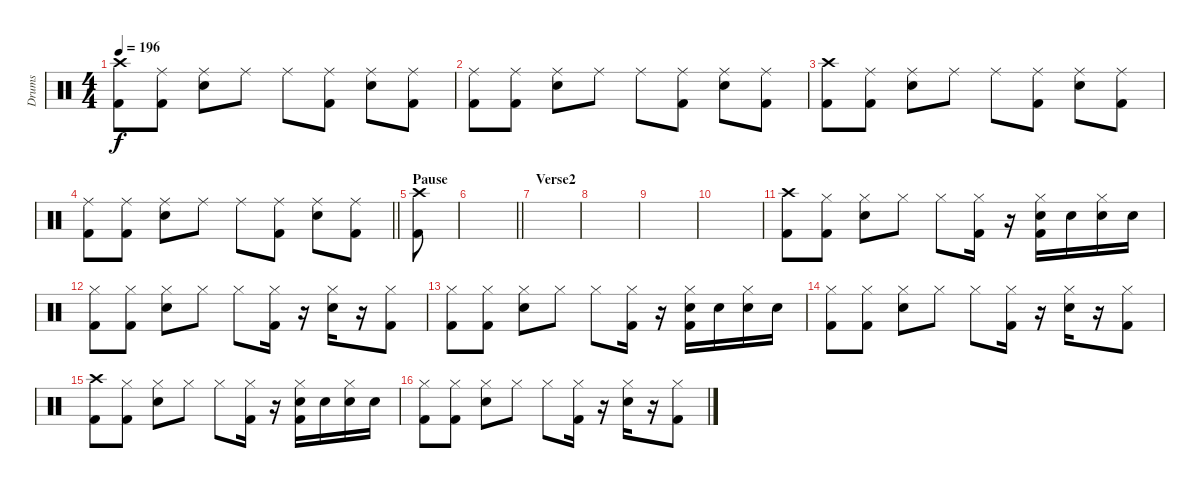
\track ("Drums" "Drums") {instrument percussion}
\staff {score}
\articulation defaults
\ts (4 4)
\tempo 196
\clef neutral
\ks c
("Crash high (hit)" "Kick (hit) 2").8{dy f} ("Ride (middle)" "Kick (hit) 2").8 ("Ride (middle)" "Electric Snare (hit)").8 "Ride (middle)".8 "Ride (middle)".8 ("Ride (middle)" "Kick (hit) 2").8 ("Ride (middle)" "Electric Snare (hit)").8 ("Ride (middle)" "Kick (hit) 2").8 |
("Ride (middle)" "Kick (hit) 2").8 ("Ride (middle)" "Kick (hit) 2").8 ("Ride (middle)" "Electric Snare (hit)").8 "Ride (middle)".8 "Ride (middle)".8 ("Ride (middle)" "Kick (hit) 2").8 ("Ride (middle)" "Electric Snare (hit)").8 ("Ride (middle)" "Kick (hit) 2").8 |
("Crash high (hit)" "Kick (hit) 2").8 ("Ride (middle)" "Kick (hit) 2").8 ("Ride (middle)" "Electric Snare (hit)").8 "Ride (middle)".8 "Ride (middle)".8 ("Ride (middle)" "Kick (hit) 2").8 ("Ride (middle)" "Electric Snare (hit)").8 ("Ride (middle)" "Kick (hit) 2").8 |
\barLineRight lightlight
("Ride (middle)" "Kick (hit) 2").8 ("Ride (middle)" "Kick (hit) 2").8 ("Ride (middle)" "Electric Snare (hit)").8 "Ride (middle)".8 "Ride (middle)".8 ("Ride (middle)" "Kick (hit) 2").8 ("Ride (middle)" "Electric Snare (hit)").8 ("Ride (middle)" "Kick (hit) 2").8 |
\section ("" "Pause")
("Crash high (hit)" "Kick (hit) 2").8 |
\barLineRight lightlight
|
\section ("" "Verse2")
|
|
|
|
("Crash high (hit)" "Kick (hit) 2").8 ("Hi-Hat (closed)" "Kick (hit) 2").8 ("Hi-Hat (closed)" "Electric Snare (hit)").8 "Hi-Hat (closed)".8 "Hi-Hat (closed)".8 ("Hi-Hat (closed)" "Kick (hit) 2").16 r.16 ("Hi-Hat (closed)" "Electric Snare (hit)" "Kick (hit) 2").16 "Electric Snare (hit)".16 ("Hi-Hat (closed)" "Electric Snare (hit)").16 "Electric Snare (hit)".16 |
("Hi-Hat (closed)" "Kick (hit) 2").8 ("Hi-Hat (closed)" "Kick (hit) 2").8 ("Hi-Hat (closed)" "Electric Snare (hit)").8 "Hi-Hat (closed)".8 "Hi-Hat (closed)".8 ("Hi-Hat (closed)" "Kick (hit) 2").16 r.16 ("Hi-Hat (closed)" "Electric Snare (hit)").16 r.16 ("Hi-Hat (closed)" "Kick (hit) 2").8 |
("Hi-Hat (closed)" "Kick (hit) 2").8 ("Hi-Hat (closed)" "Kick (hit) 2").8 ("Hi-Hat (closed)" "Electric Snare (hit)").8 "Hi-Hat (closed)".8 "Hi-Hat (closed)".8 ("Hi-Hat (closed)" "Kick (hit) 2").16 r.16 ("Hi-Hat (closed)" "Electric Snare (hit)" "Kick (hit) 2").16 "Electric Snare (hit)".16 ("Hi-Hat (closed)" "Electric Snare (hit)").16 "Electric Snare (hit)".16 |
("Hi-Hat (closed)" "Kick (hit) 2").8 ("Hi-Hat (closed)" "Kick (hit) 2").8 ("Hi-Hat (closed)" "Electric Snare (hit)").8 "Hi-Hat (closed)".8 "Hi-Hat (closed)".8 ("Hi-Hat (closed)" "Kick (hit) 2").16 r.16 ("Hi-Hat (closed)" "Electric Snare (hit)").16 r.16 ("Hi-Hat (closed)" "Kick (hit) 2").8 |
("Crash high (hit)" "Kick (hit) 2").8 ("Hi-Hat (closed)" "Kick (hit) 2").8 ("Hi-Hat (closed)" "Electric Snare (hit)").8 "Hi-Hat (closed)".8 "Hi-Hat (closed)".8 ("Hi-Hat (closed)" "Kick (hit) 2").16 r.16 ("Hi-Hat (closed)" "Electric Snare (hit)" "Kick (hit) 2").16 "Electric Snare (hit)".16 ("Hi-Hat (closed)" "Electric Snare (hit)").16 "Electric Snare (hit)".16 |
("Hi-Hat (closed)" "Kick (hit) 2").8 ("Hi-Hat (closed)" "Kick (hit) 2").8 ("Hi-Hat (closed)" "Electric Snare (hit)").8 "Hi-Hat (closed)".8 "Hi-Hat (closed)".8 ("Hi-Hat (closed)" "Kick (hit) 2").16 r.16 ("Hi-Hat (closed)" "Electric Snare (hit)").16 r.16 ("Hi-Hat (closed)" "Kick (hit) 2").8
